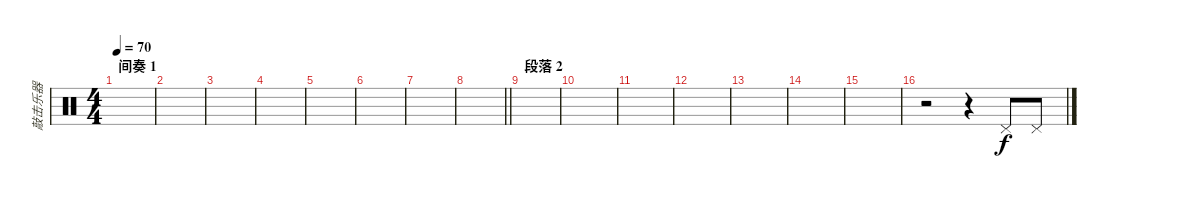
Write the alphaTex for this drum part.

\track ("敲击乐器" "敲击乐器") {instrument percussion}
\staff {score}
\articulation defaults
\ts (4 4)
\section ("" "间奏 1")
\tempo 70
\clef neutral
\ks c
|
|
|
|
|
|
|
\barLineRight lightlight
|
\section ("" "段落 2")
|
|
|
|
|
|
|
r.2 r.4 "Pedal Hi-Hat (hit)".8 "Pedal Hi-Hat (hit)".8
